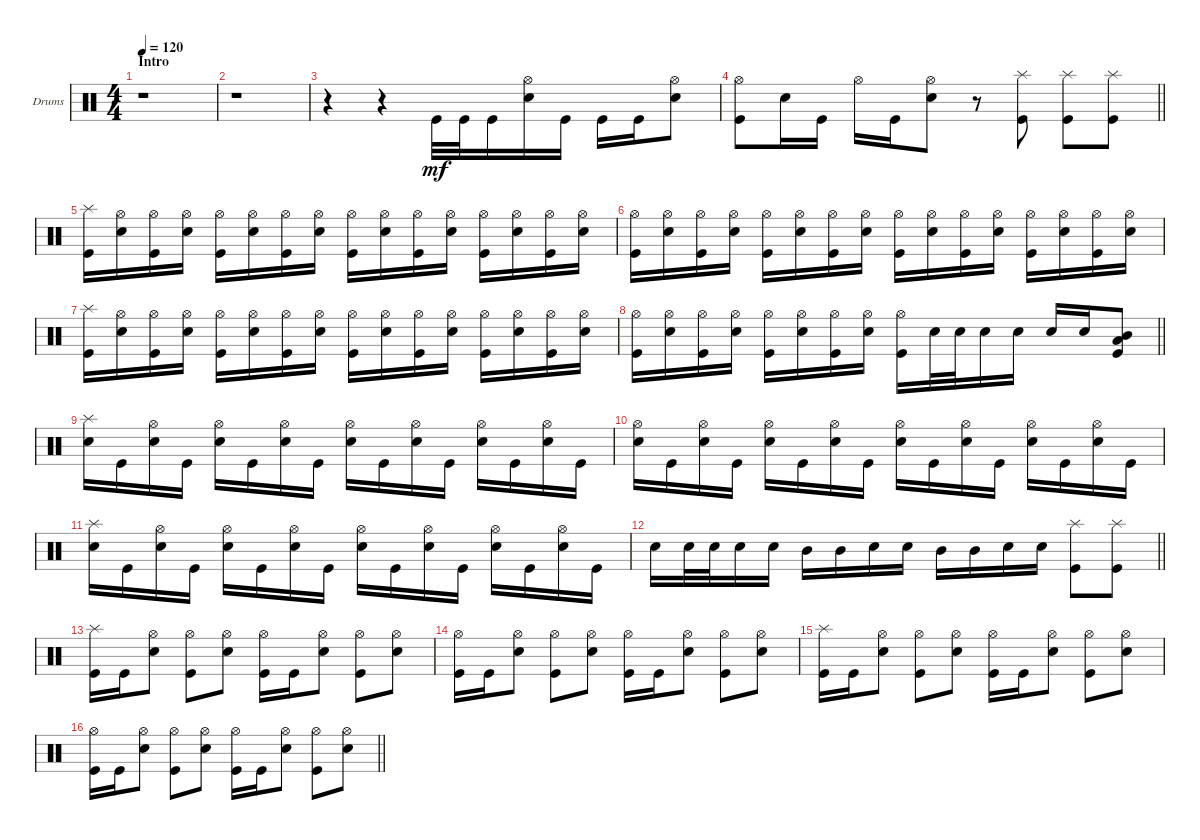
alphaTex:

\defaultSystemsLayout 4
\bracketExtendMode groupsimilarinstruments
\firstSystemTrackNameOrientation horizontal
\otherSystemsTrackNameOrientation horizontal
\track ("Drumkit" "Drums") {instrument percussion}
\staff {score}
\articulation defaults
\ts (4 4)
\beaming (8 2 2 2 2)
\section ("" "Intro")
\tempo 120
\clef neutral
\ks c
r.1{dy mf} |
\scale
0.472222 r.1 |
\scale
0.263889 r.4 r.4 "Kick (hit)".32 "Kick (hit)".32 "Kick (hit)".16 ("Snare (hit) 2" "Hi-Hat (open)").16 "Kick (hit)".16 "Kick (hit)".16 "Kick (hit)".16 ("Snare (hit) 2" "Hi-Hat (open)").8 |
\scale
0.263889
\barLineRight lightlight
("Kick (hit)" "Hi-Hat (open)").8 "Snare (hit) 2".16 "Kick (hit)".16 "Hi-Hat (open)".16 "Kick (hit)".16 ("Snare (hit) 2" "Hi-Hat (open)").8 r.8 ("Kick (hit)" "Splash (hit)").8 ("Kick (hit)" "Splash (hit)").8 ("Kick (hit)" "Splash (hit)").8 |
("Kick (hit)" "Splash (hit)").16 ("Snare (hit) 2" "Hi-Hat (open)").16 ("Kick (hit)" "Hi-Hat (open)").16 ("Snare (hit) 2" "Hi-Hat (open)").16 ("Kick (hit)" "Hi-Hat (open)").16 ("Snare (hit) 2" "Hi-Hat (open)").16 ("Kick (hit)" "Hi-Hat (open)").16 ("Snare (hit) 2" "Hi-Hat (open)").16 ("Kick (hit)" "Hi-Hat (open)").16 ("Snare (hit) 2" "Hi-Hat (open)").16 ("Kick (hit)" "Hi-Hat (open)").16 ("Snare (hit) 2" "Hi-Hat (open)").16 ("Kick (hit)" "Hi-Hat (open)").16 ("Snare (hit) 2" "Hi-Hat (open)").16 ("Kick (hit)" "Hi-Hat (open)").16 ("Snare (hit) 2" "Hi-Hat (open)").16 |
("Kick (hit)" "Hi-Hat (open)").16 ("Snare (hit) 2" "Hi-Hat (open)").16 ("Kick (hit)" "Hi-Hat (open)").16 ("Snare (hit) 2" "Hi-Hat (open)").16 ("Kick (hit)" "Hi-Hat (open)").16 ("Snare (hit) 2" "Hi-Hat (open)").16 ("Kick (hit)" "Hi-Hat (open)").16 ("Snare (hit) 2" "Hi-Hat (open)").16 ("Kick (hit)" "Hi-Hat (open)").16 ("Snare (hit) 2" "Hi-Hat (open)").16 ("Kick (hit)" "Hi-Hat (open)").16 ("Snare (hit) 2" "Hi-Hat (open)").16 ("Kick (hit)" "Hi-Hat (open)").16 ("Snare (hit) 2" "Hi-Hat (open)").16 ("Kick (hit)" "Hi-Hat (open)").16 ("Snare (hit) 2" "Hi-Hat (open)").16 |
("Kick (hit)" "Splash (hit)").16 ("Snare (hit) 2" "Hi-Hat (open)").16 ("Kick (hit)" "Hi-Hat (open)").16 ("Snare (hit) 2" "Hi-Hat (open)").16 ("Kick (hit)" "Hi-Hat (open)").16 ("Snare (hit) 2" "Hi-Hat (open)").16 ("Kick (hit)" "Hi-Hat (open)").16 ("Snare (hit) 2" "Hi-Hat (open)").16 ("Kick (hit)" "Hi-Hat (open)").16 ("Snare (hit) 2" "Hi-Hat (open)").16 ("Kick (hit)" "Hi-Hat (open)").16 ("Snare (hit) 2" "Hi-Hat (open)").16 ("Kick (hit)" "Hi-Hat (open)").16 ("Snare (hit) 2" "Hi-Hat (open)").16 ("Kick (hit)" "Hi-Hat (open)").16 ("Snare (hit) 2" "Hi-Hat (open)").16 |
\barLineRight lightlight
("Kick (hit)" "Hi-Hat (open)").16 ("Snare (hit) 2" "Hi-Hat (open)").16 ("Kick (hit)" "Hi-Hat (open)").16 ("Snare (hit) 2" "Hi-Hat (open)").16 ("Kick (hit)" "Hi-Hat (open)").16 ("Snare (hit) 2" "Hi-Hat (open)").16 ("Kick (hit)" "Hi-Hat (open)").16 ("Snare (hit) 2" "Hi-Hat (open)").16 ("Kick (hit)" "Hi-Hat (open)").16 "Snare (hit) 2".32 "Snare (hit) 2".32 "Snare (hit) 2".16 "Snare (hit) 2".16 "Snare (hit) 2".16 "Snare (hit) 2".16 ("Mid Tom (hit)" "Kick (hit)" "Low Tom (hit)").8 |
("Snare (hit) 2" "Splash (hit)").16 "Kick (hit)".16 ("Snare (hit) 2" "Hi-Hat (open)").16 "Kick (hit)".16 ("Snare (hit) 2" "Hi-Hat (open)").16 "Kick (hit)".16 ("Snare (hit) 2" "Hi-Hat (open)").16 "Kick (hit)".16 ("Snare (hit) 2" "Hi-Hat (open)").16 "Kick (hit)".16 ("Snare (hit) 2" "Hi-Hat (open)").16 "Kick (hit)".16 ("Snare (hit) 2" "Hi-Hat (open)").16 "Kick (hit)".16 ("Snare (hit) 2" "Hi-Hat (open)").16 "Kick (hit)".16 |
("Snare (hit) 2" "Hi-Hat (open)").16 "Kick (hit)".16 ("Snare (hit) 2" "Hi-Hat (open)").16 "Kick (hit)".16 ("Snare (hit) 2" "Hi-Hat (open)").16 "Kick (hit)".16 ("Snare (hit) 2" "Hi-Hat (open)").16 "Kick (hit)".16 ("Snare (hit) 2" "Hi-Hat (open)").16 "Kick (hit)".16 ("Snare (hit) 2" "Hi-Hat (open)").16 "Kick (hit)".16 ("Snare (hit) 2" "Hi-Hat (open)").16 "Kick (hit)".16 ("Snare (hit) 2" "Hi-Hat (open)").16 "Kick (hit)".16 |
("Snare (hit) 2" "Splash (hit)").16 "Kick (hit)".16 ("Snare (hit) 2" "Hi-Hat (open)").16 "Kick (hit)".16 ("Snare (hit) 2" "Hi-Hat (open)").16 "Kick (hit)".16 ("Snare (hit) 2" "Hi-Hat (open)").16 "Kick (hit)".16 ("Snare (hit) 2" "Hi-Hat (open)").16 "Kick (hit)".16 ("Snare (hit) 2" "Hi-Hat (open)").16 "Kick (hit)".16 ("Snare (hit) 2" "Hi-Hat (open)").16 "Kick (hit)".16 ("Snare (hit) 2" "Hi-Hat (open)").16 "Kick (hit)".16 |
\barLineRight lightlight "Snare (hit) 2".16 "Snare (hit) 2".32 "Snare (hit) 2".32 "Snare (hit) 2".16 "Snare (hit) 2".16 "Mid Tom (hit)".16 "Mid Tom (hit)".16 "Snare (hit) 2".16 "Snare (hit) 2".16 "Mid Tom (hit)".16 "Mid Tom (hit)".16 "Snare (hit) 2".16 "Snare (hit) 2".16
("Kick (hit)" "Splash (hit)").8 ("Kick (hit)" "Splash (hit)").8 |
("Kick (hit)" "Splash (hit)").16 "Kick (hit)".16 ("Snare (hit) 2" "Hi-Hat (open)").8 ("Kick (hit)" "Hi-Hat (open)").8 ("Snare (hit) 2" "Hi-Hat (open)").8 ("Kick (hit)" "Hi-Hat (open)").16 "Kick (hit)".16 ("Snare (hit) 2" "Hi-Hat (open)").8 ("Kick (hit)" "Hi-Hat (open)").8 ("Snare (hit) 2" "Hi-Hat (open)").8 |
("Kick (hit)" "Hi-Hat (open)").16 "Kick (hit)".16 ("Snare (hit) 2" "Hi-Hat (open)").8 ("Kick (hit)" "Hi-Hat (open)").8 ("Snare (hit) 2" "Hi-Hat (open)").8 ("Kick (hit)" "Hi-Hat (open)").16 "Kick (hit)".16 ("Snare (hit) 2" "Hi-Hat (open)").8 ("Kick (hit)" "Hi-Hat (open)").8 ("Snare (hit) 2" "Hi-Hat (open)").8 |
("Kick (hit)" "Splash (hit)").16 "Kick (hit)".16 ("Snare (hit) 2" "Hi-Hat (open)").8 ("Kick (hit)" "Hi-Hat (open)").8 ("Snare (hit) 2" "Hi-Hat (open)").8 ("Kick (hit)" "Hi-Hat (open)").16 "Kick (hit)".16 ("Snare (hit) 2" "Hi-Hat (open)").8 ("Kick (hit)" "Hi-Hat (open)").8 ("Snare (hit) 2" "Hi-Hat (open)").8 |
\barLineRight lightlight
("Kick (hit)" "Hi-Hat (open)").16 "Kick (hit)".16 ("Snare (hit) 2" "Hi-Hat (open)").8 ("Kick (hit)" "Hi-Hat (open)").8 ("Snare (hit) 2" "Hi-Hat (open)").8 ("Kick (hit)" "Hi-Hat (open)").16 "Kick (hit)".16 ("Snare (hit) 2" "Hi-Hat (open)").8 ("Kick (hit)" "Hi-Hat (open)").8 ("Snare (hit) 2" "Hi-Hat (open)").8
